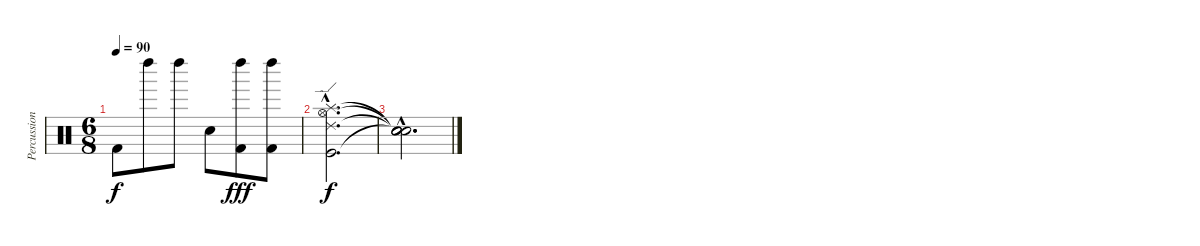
\track ("Percussion" "Percussion") {instrument percussion}
\staff {score}
\articulation defaults
\ts (6 8)
\tempo 90
\clef neutral
\ks c "Kick (hit) 2".8{dy f} "Left Maraca (hit)".8 "Left Maraca (hit)".8 "Snare (hit) 2".8
("Left Maraca (hit)" "Kick (hit) 2").8{dy fff} ("Left Maraca (hit)" "Kick (hit) 2").8 |
("Hi-Hat (open)"{hac} "Splash (hit)"{hac} "Ride (edge) 2"{hac} "Kick (hit)"{hac}).2{d dy f} |
("Snare (hit)"{hac t} "Snare (hit)"{hac t} "Snare (hit)"{hac t} "Snare (hit)"{hac t}).2{d}
